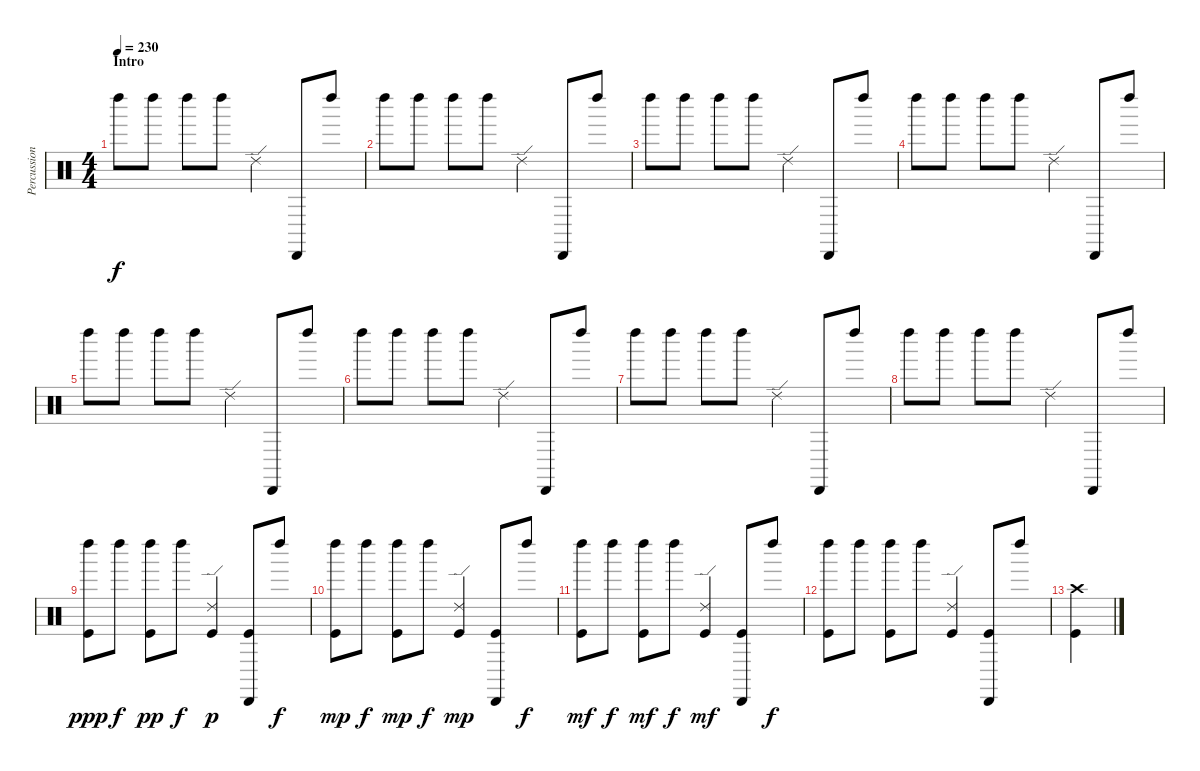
\track ("Percussion" "Percussion") {instrument percussion}
\staff {score}
\articulation defaults
\ts (4 4)
\section ("" "Intro")
\tempo 230
\clef neutral
\ks c "Left Maraca (hit)".8{dy f} "Left Maraca (hit)".8 "Left Maraca (hit)".8 "Left Maraca (hit)".8 "Ride (edge) 2".4 "Cabasa (hit)".8 "Left Maraca (hit)".8
|
"Left Maraca (hit)".8 "Left Maraca (hit)".8 "Left Maraca (hit)".8 "Left Maraca (hit)".8 "Ride (edge) 2".4 "Cabasa (hit)".8 "Left Maraca (hit)".8 |
"Left Maraca (hit)".8 "Left Maraca (hit)".8 "Left Maraca (hit)".8 "Left Maraca (hit)".8 "Ride (edge) 2".4 "Cabasa (hit)".8 "Left Maraca (hit)".8 |
"Left Maraca (hit)".8 "Left Maraca (hit)".8 "Left Maraca (hit)".8 "Left Maraca (hit)".8 "Ride (edge) 2".4 "Cabasa (hit)".8 "Left Maraca (hit)".8 |
"Left Maraca (hit)".8 "Left Maraca (hit)".8 "Left Maraca (hit)".8 "Left Maraca (hit)".8 "Ride (edge) 2".4 "Cabasa (hit)".8 "Left Maraca (hit)".8 |
"Left Maraca (hit)".8 "Left Maraca (hit)".8 "Left Maraca (hit)".8 "Left Maraca (hit)".8 "Ride (edge) 2".4 "Cabasa (hit)".8 "Left Maraca (hit)".8 |
"Left Maraca (hit)".8 "Left Maraca (hit)".8 "Left Maraca (hit)".8 "Left Maraca (hit)".8 "Ride (edge) 2".4 "Cabasa (hit)".8 "Left Maraca (hit)".8 |
"Left Maraca (hit)".8 "Left Maraca (hit)".8 "Left Maraca (hit)".8 "Left Maraca (hit)".8 "Ride (edge) 2".4 "Cabasa (hit)".8 "Left Maraca (hit)".8 |
("Left Maraca (hit)" "Kick (hit)").8{dy ppp} "Left Maraca (hit)".8{dy f} ("Left Maraca (hit)" "Kick (hit)").8{dy pp} "Left Maraca (hit)".8{dy f} ("Ride (edge) 2" "Kick (hit)").4{dy p} ("Cabasa (hit)" "Kick (hit)").8 "Left Maraca (hit)".8{dy f} |
("Left Maraca (hit)" "Kick (hit)").8{dy mp} "Left Maraca (hit)".8{dy f} ("Left Maraca (hit)" "Kick (hit)").8{dy mp} "Left Maraca (hit)".8{dy f} ("Ride (edge) 2" "Kick (hit)").4{dy mp} ("Cabasa (hit)" "Kick (hit)").8 "Left Maraca (hit)".8{dy f} |
("Left Maraca (hit)" "Kick (hit)").8{dy mf} "Left Maraca (hit)".8{dy f} ("Left Maraca (hit)" "Kick (hit)").8{dy mf} "Left Maraca (hit)".8{dy f} ("Ride (edge) 2" "Kick (hit)").4{dy mf} ("Cabasa (hit)" "Kick (hit)").8 "Left Maraca (hit)".8{dy f} |
("Left Maraca (hit)" "Kick (hit)").8 "Left Maraca (hit)".8 ("Left Maraca (hit)" "Kick (hit)").8 "Left Maraca (hit)".8 ("Ride (edge) 2" "Kick (hit)").4 ("Cabasa (hit)" "Kick (hit)").8 "Left Maraca (hit)".8 |
("Crash high (hit)" "Kick (hit)").4
